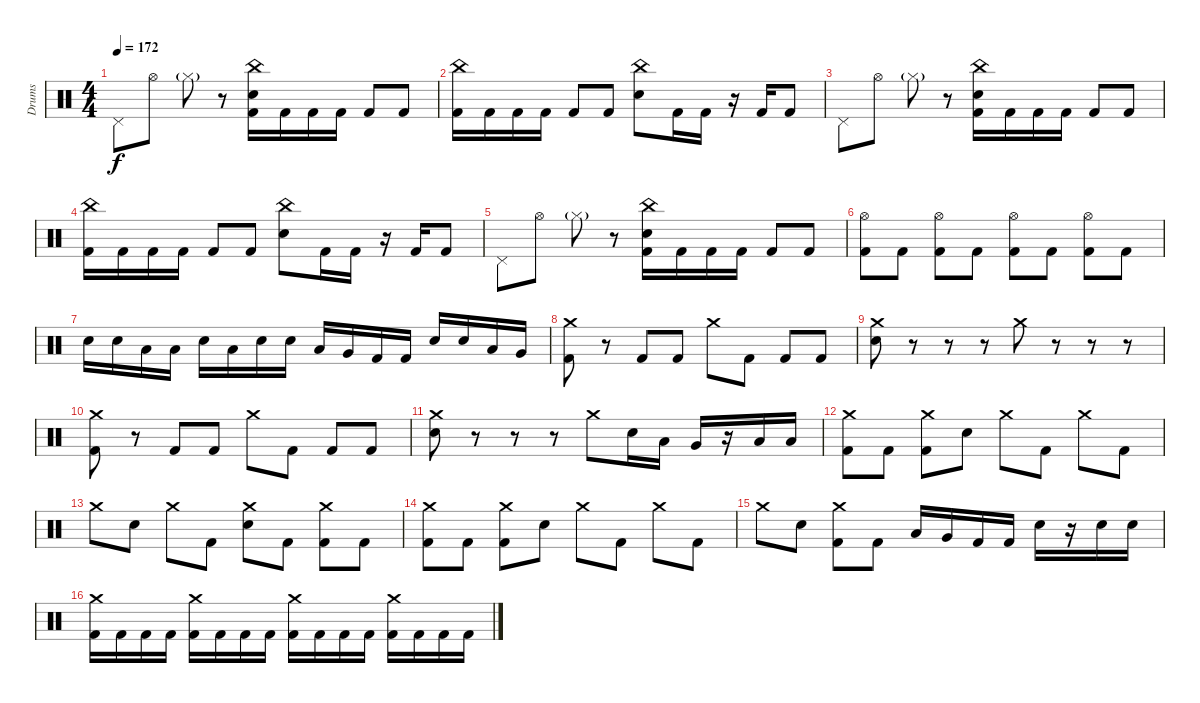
\track ("Drums" "Drums") {instrument percussion}
\staff {score}
\articulation defaults
\ts (4 4)
\tempo 172
\clef neutral
\ks c "Pedal Hi-Hat (hit)".8{dy f} "Hi-Hat (open)".8 "Hi-Hat (closed)"{g}.8
r.8 ("China (hit)" "Electric Snare (hit)" "Kick (hit) 2").16 "Kick (hit) 2".16 "Kick (hit) 2".16 "Kick (hit) 2".16 "Kick (hit) 2".8 "Kick (hit) 2".8 |
("China (hit)" "Kick (hit) 2").16 "Kick (hit) 2".16 "Kick (hit) 2".16 "Kick (hit) 2".16 "Kick (hit) 2".8 "Kick (hit) 2".8 ("China (hit)" "Electric Snare (hit)").8 "Kick (hit) 2".16 "Kick (hit) 2".16 r.16 "Kick (hit) 2".16 "Kick (hit) 2".8 |
"Pedal Hi-Hat (hit)".8 "Hi-Hat (open)".8 "Hi-Hat (closed)"{g}.8 r.8 ("China (hit)" "Electric Snare (hit)" "Kick (hit) 2").16 "Kick (hit) 2".16 "Kick (hit) 2".16 "Kick (hit) 2".16 "Kick (hit) 2".8 "Kick (hit) 2".8 |
("China (hit)" "Kick (hit) 2").16 "Kick (hit) 2".16 "Kick (hit) 2".16 "Kick (hit) 2".16 "Kick (hit) 2".8 "Kick (hit) 2".8 ("China (hit)" "Electric Snare (hit)").8 "Kick (hit) 2".16 "Kick (hit) 2".16 r.16 "Kick (hit) 2".16 "Kick (hit) 2".8 |
"Pedal Hi-Hat (hit)".8 "Hi-Hat (open)".8 "Hi-Hat (closed)"{g}.8 r.8 ("China (hit)" "Electric Snare (hit)" "Kick (hit) 2").16 "Kick (hit) 2".16 "Kick (hit) 2".16 "Kick (hit) 2".16 "Kick (hit) 2".8 "Kick (hit) 2".8 |
("Hi-Hat (open)" "Kick (hit) 2").8 "Kick (hit) 2".8 ("Hi-Hat (open)" "Kick (hit) 2").8 "Kick (hit) 2".8 ("Hi-Hat (open)" "Kick (hit) 2").8 "Kick (hit) 2".8 ("Hi-Hat (open)" "Kick (hit) 2").8 "Kick (hit) 2".8 |
"Electric Snare (hit)".16 "Electric Snare (hit)".16 "Low Tom (hit)".16 "Low Tom (hit)".16 "Electric Snare (hit)".16 "Low Tom (hit)".16 "Electric Snare (hit)".16 "Electric Snare (hit)".16 "Low Tom (hit)".16 "Very Low Tom (hit)".16 "Kick (hit) 2".16 "Kick (hit) 2".16 "Electric Snare (hit)".16 "Electric Snare (hit)".16 "Low Tom (hit)".16 "Very Low Tom (hit)".16 |
("Crash medium (hit)" "Kick (hit) 2").8 r.8 "Kick (hit) 2".8 "Kick (hit) 2".8 "Crash medium (hit)".8 "Kick (hit) 2".8 "Kick (hit) 2".8 "Kick (hit) 2".8 |
("Crash medium (hit)" "Electric Snare (hit)").8 r.8 r.8 r.8 "Crash medium (hit)".8 r.8 r.8 r.8 |
("Crash medium (hit)" "Kick (hit) 2").8 r.8 "Kick (hit) 2".8 "Kick (hit) 2".8 "Crash medium (hit)".8 "Kick (hit) 2".8 "Kick (hit) 2".8 "Kick (hit) 2".8 |
("Crash medium (hit)" "Electric Snare (hit)").8 r.8 r.8 r.8 "Crash medium (hit)".8 "Electric Snare (hit)".16 "Low Tom (hit)".16 "Very Low Tom (hit)".16 r.16 "Low Floor Tom (hit)".16 "Low Floor Tom (hit)".16 |
("Crash medium (hit)" "Kick (hit) 2").8 "Kick (hit) 2".8 ("Crash medium (hit)" "Kick (hit) 2").8 "Electric Snare (hit)".8 "Crash medium (hit)".8 "Kick (hit) 2".8 "Crash medium (hit)".8 "Kick (hit) 2".8 |
"Crash medium (hit)".8 "Electric Snare (hit)".8 "Crash medium (hit)".8 "Kick (hit) 2".8 ("Crash medium (hit)" "Electric Snare (hit)").8 "Kick (hit) 2".8 ("Crash medium (hit)" "Kick (hit) 2").8 "Kick (hit) 2".8 |
("Crash medium (hit)" "Kick (hit) 2").8 "Kick (hit) 2".8 ("Crash medium (hit)" "Kick (hit) 2").8 "Electric Snare (hit)".8 "Crash medium (hit)".8 "Kick (hit) 2".8 "Crash medium (hit)".8 "Kick (hit) 2".8 |
"Crash medium (hit)".8 "Electric Snare (hit)".8 ("Crash medium (hit)" "Kick (hit) 2").8 "Kick (hit) 2".8 "Low Tom (hit)".16 "Very Low Tom (hit)".16 "Kick (hit) 2".16 "Kick (hit) 2".16 "Electric Snare (hit)".16 r.16 "Electric Snare (hit)".16 "Electric Snare (hit)".16 |
("Crash medium (hit)" "Kick (hit) 2").16 "Kick (hit) 2".16 "Kick (hit) 2".16 "Kick (hit) 2".16 ("Crash medium (hit)" "Kick (hit) 2").16 "Kick (hit) 2".16 "Kick (hit) 2".16 "Kick (hit) 2".16 ("Crash medium (hit)" "Kick (hit) 2").16 "Kick (hit) 2".16 "Kick (hit) 2".16 "Kick (hit) 2".16 ("Crash medium (hit)" "Kick (hit) 2").16 "Kick (hit) 2".16 "Kick (hit) 2".16 "Kick (hit) 2".16
